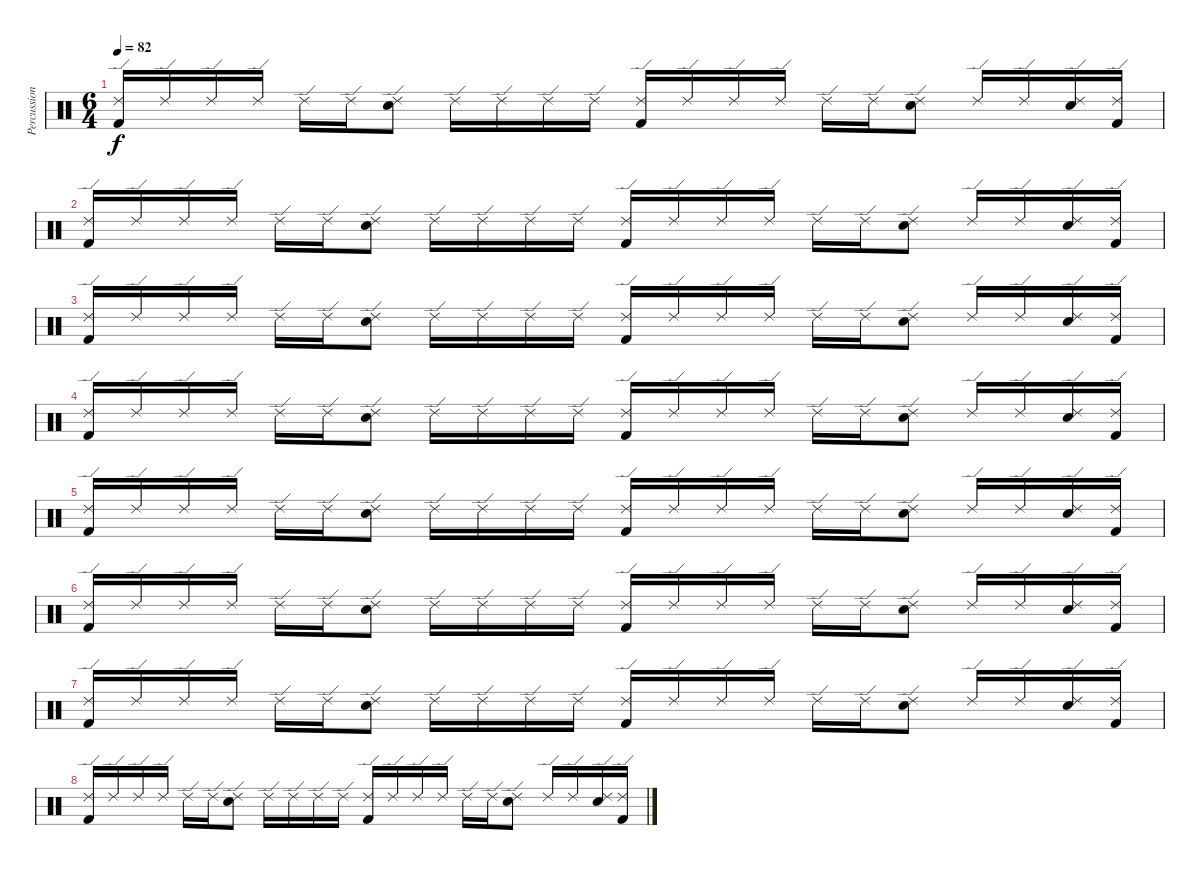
\track ("Percussion" "Percussion") {instrument percussion}
\staff {score}
\articulation defaults
\ts (6 4)
\tempo 82
\clef neutral
\ks c
("Ride (edge) 2" "Kick (hit) 2").16{dy f} "Ride (edge) 2".16 "Ride (edge) 2".16 "Ride (edge) 2".16 "Ride (edge) 2".16 "Ride (edge) 2".16 ("Ride (edge) 2" "Electric Snare (hit)").8 "Ride (edge) 2".16 "Ride (edge) 2".16 "Ride (edge) 2".16 "Ride (edge) 2".16 ("Ride (edge) 2" "Kick (hit) 2").16 "Ride (edge) 2".16 "Ride (edge) 2".16 "Ride (edge) 2".16 "Ride (edge) 2".16 "Ride (edge) 2".16 ("Ride (edge) 2" "Electric Snare (hit)").8 "Ride (edge) 2".16 "Ride (edge) 2".16 ("Ride (edge) 2" "Electric Snare (hit)").16 ("Ride (edge) 2" "Kick (hit) 2").16 |
("Ride (edge) 2" "Kick (hit) 2").16 "Ride (edge) 2".16 "Ride (edge) 2".16 "Ride (edge) 2".16 "Ride (edge) 2".16 "Ride (edge) 2".16 ("Ride (edge) 2" "Electric Snare (hit)").8 "Ride (edge) 2".16 "Ride (edge) 2".16 "Ride (edge) 2".16 "Ride (edge) 2".16 ("Ride (edge) 2" "Kick (hit) 2").16 "Ride (edge) 2".16 "Ride (edge) 2".16 "Ride (edge) 2".16 "Ride (edge) 2".16 "Ride (edge) 2".16 ("Ride (edge) 2" "Electric Snare (hit)").8 "Ride (edge) 2".16 "Ride (edge) 2".16 ("Ride (edge) 2" "Electric Snare (hit)").16 ("Ride (edge) 2" "Kick (hit) 2").16 |
("Ride (edge) 2" "Kick (hit) 2").16 "Ride (edge) 2".16 "Ride (edge) 2".16 "Ride (edge) 2".16 "Ride (edge) 2".16 "Ride (edge) 2".16 ("Ride (edge) 2" "Electric Snare (hit)").8 "Ride (edge) 2".16 "Ride (edge) 2".16 "Ride (edge) 2".16 "Ride (edge) 2".16 ("Ride (edge) 2" "Kick (hit) 2").16 "Ride (edge) 2".16 "Ride (edge) 2".16 "Ride (edge) 2".16 "Ride (edge) 2".16 "Ride (edge) 2".16 ("Ride (edge) 2" "Electric Snare (hit)").8 "Ride (edge) 2".16 "Ride (edge) 2".16 ("Ride (edge) 2" "Electric Snare (hit)").16 ("Ride (edge) 2" "Kick (hit) 2").16 |
("Ride (edge) 2" "Kick (hit) 2").16 "Ride (edge) 2".16 "Ride (edge) 2".16 "Ride (edge) 2".16 "Ride (edge) 2".16 "Ride (edge) 2".16 ("Ride (edge) 2" "Electric Snare (hit)").8 "Ride (edge) 2".16 "Ride (edge) 2".16 "Ride (edge) 2".16 "Ride (edge) 2".16 ("Ride (edge) 2" "Kick (hit) 2").16 "Ride (edge) 2".16 "Ride (edge) 2".16 "Ride (edge) 2".16 "Ride (edge) 2".16 "Ride (edge) 2".16 ("Ride (edge) 2" "Electric Snare (hit)").8 "Ride (edge) 2".16 "Ride (edge) 2".16 ("Ride (edge) 2" "Electric Snare (hit)").16 ("Ride (edge) 2" "Kick (hit) 2").16 |
("Ride (edge) 2" "Kick (hit) 2").16 "Ride (edge) 2".16 "Ride (edge) 2".16 "Ride (edge) 2".16 "Ride (edge) 2".16 "Ride (edge) 2".16 ("Ride (edge) 2" "Electric Snare (hit)").8 "Ride (edge) 2".16 "Ride (edge) 2".16 "Ride (edge) 2".16 "Ride (edge) 2".16 ("Ride (edge) 2" "Kick (hit) 2").16 "Ride (edge) 2".16 "Ride (edge) 2".16 "Ride (edge) 2".16 "Ride (edge) 2".16 "Ride (edge) 2".16 ("Ride (edge) 2" "Electric Snare (hit)").8 "Ride (edge) 2".16 "Ride (edge) 2".16 ("Ride (edge) 2" "Electric Snare (hit)").16 ("Ride (edge) 2" "Kick (hit) 2").16 |
("Ride (edge) 2" "Kick (hit) 2").16 "Ride (edge) 2".16 "Ride (edge) 2".16 "Ride (edge) 2".16 "Ride (edge) 2".16 "Ride (edge) 2".16 ("Ride (edge) 2" "Electric Snare (hit)").8 "Ride (edge) 2".16 "Ride (edge) 2".16 "Ride (edge) 2".16 "Ride (edge) 2".16 ("Ride (edge) 2" "Kick (hit) 2").16 "Ride (edge) 2".16 "Ride (edge) 2".16 "Ride (edge) 2".16 "Ride (edge) 2".16 "Ride (edge) 2".16 ("Ride (edge) 2" "Electric Snare (hit)").8 "Ride (edge) 2".16 "Ride (edge) 2".16 ("Ride (edge) 2" "Electric Snare (hit)").16 ("Ride (edge) 2" "Kick (hit) 2").16 |
("Ride (edge) 2" "Kick (hit) 2").16 "Ride (edge) 2".16 "Ride (edge) 2".16 "Ride (edge) 2".16 "Ride (edge) 2".16 "Ride (edge) 2".16 ("Ride (edge) 2" "Electric Snare (hit)").8 "Ride (edge) 2".16 "Ride (edge) 2".16 "Ride (edge) 2".16 "Ride (edge) 2".16 ("Ride (edge) 2" "Kick (hit) 2").16 "Ride (edge) 2".16 "Ride (edge) 2".16 "Ride (edge) 2".16 "Ride (edge) 2".16 "Ride (edge) 2".16 ("Ride (edge) 2" "Electric Snare (hit)").8 "Ride (edge) 2".16 "Ride (edge) 2".16 ("Ride (edge) 2" "Electric Snare (hit)").16 ("Ride (edge) 2" "Kick (hit) 2").16 |
("Ride (edge) 2" "Kick (hit) 2").16 "Ride (edge) 2".16 "Ride (edge) 2".16 "Ride (edge) 2".16 "Ride (edge) 2".16 "Ride (edge) 2".16 ("Ride (edge) 2" "Electric Snare (hit)").8 "Ride (edge) 2".16 "Ride (edge) 2".16 "Ride (edge) 2".16 "Ride (edge) 2".16 ("Ride (edge) 2" "Kick (hit) 2").16 "Ride (edge) 2".16 "Ride (edge) 2".16 "Ride (edge) 2".16 "Ride (edge) 2".16 "Ride (edge) 2".16 ("Ride (edge) 2" "Electric Snare (hit)").8 "Ride (edge) 2".16 "Ride (edge) 2".16 ("Ride (edge) 2" "Electric Snare (hit)").16 ("Ride (edge) 2" "Kick (hit) 2").16
